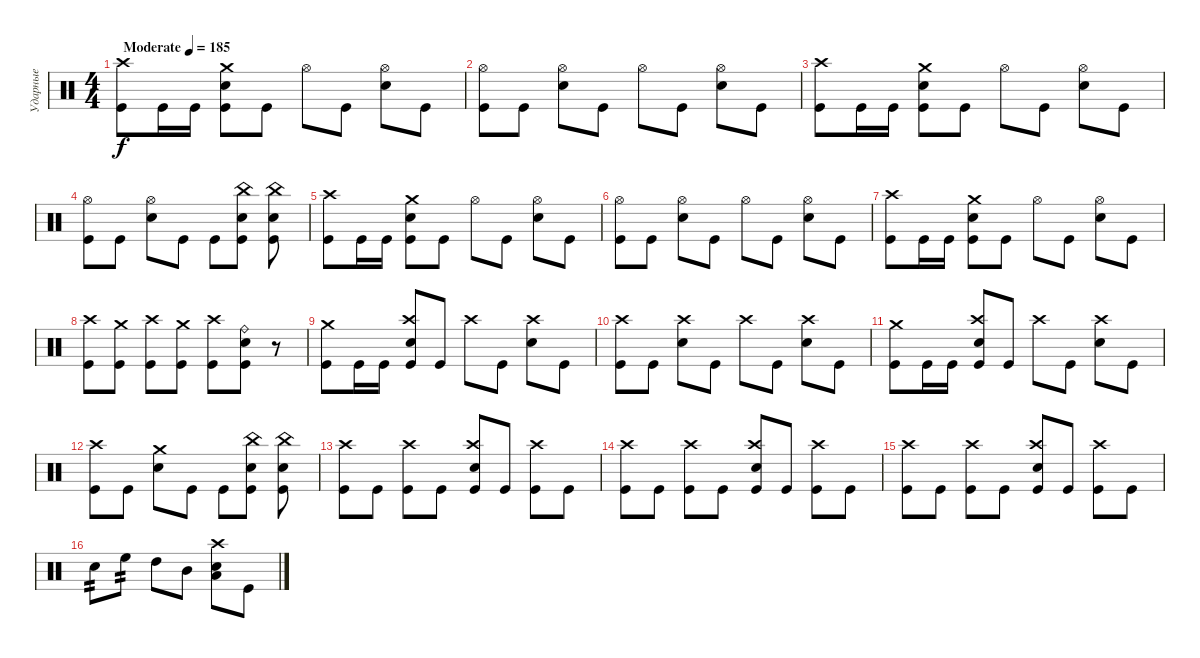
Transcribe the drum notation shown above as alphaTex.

\track ("Ударные" "Ударные") {instrument percussion}
\staff {score}
\articulation defaults
\ts (4 4)
\tempo (185 "Moderate")
\clef neutral
\ks c
("Kick (hit)" "Crash high (hit)").8{dy f} "Kick (hit)".16 "Kick (hit)".16 ("Kick (hit)" "Snare (hit) 2" "Crash medium (hit)").8 "Kick (hit)".8 "Hi-Hat (open)".8 "Kick (hit)".8 ("Snare (hit) 2" "Hi-Hat (open)").8 "Kick (hit)".8 |
("Kick (hit)" "Hi-Hat (open)").8 "Kick (hit)".8 ("Hi-Hat (open)" "Snare (hit) 2").8 "Kick (hit)".8 "Hi-Hat (open)".8 "Kick (hit)".8 ("Snare (hit) 2" "Hi-Hat (open)").8 "Kick (hit)".8 |
("Kick (hit)" "Crash high (hit)").8 "Kick (hit)".16 "Kick (hit)".16 ("Kick (hit)" "Snare (hit) 2" "Crash medium (hit)").8 "Kick (hit)".8 "Hi-Hat (open)".8 "Kick (hit)".8 ("Snare (hit) 2" "Hi-Hat (open)").8 "Kick (hit)".8 |
("Kick (hit)" "Hi-Hat (open)").8 "Kick (hit)".8 ("Hi-Hat (open)" "Snare (hit) 2").8 "Kick (hit)".8 "Kick (hit)".8 ("Snare (hit) 2" "China (hit)" "Kick (hit)").8 ("Snare (hit) 2" "China (hit)" "Kick (hit)").8 |
("Kick (hit)" "Crash high (hit)").8 "Kick (hit)".16 "Kick (hit)".16 ("Kick (hit)" "Snare (hit) 2" "Crash medium (hit)").8 "Kick (hit)".8 "Hi-Hat (open)".8 "Kick (hit)".8 ("Snare (hit) 2" "Hi-Hat (open)").8 "Kick (hit)".8 |
("Kick (hit)" "Hi-Hat (open)").8 "Kick (hit)".8 ("Hi-Hat (open)" "Snare (hit) 2").8 "Kick (hit)".8 "Hi-Hat (open)".8 "Kick (hit)".8 ("Snare (hit) 2" "Hi-Hat (open)").8 "Kick (hit)".8 |
("Kick (hit)" "Crash high (hit)").8 "Kick (hit)".16 "Kick (hit)".16 ("Kick (hit)" "Snare (hit) 2" "Crash medium (hit)").8 "Kick (hit)".8 "Hi-Hat (open)".8 "Kick (hit)".8 ("Snare (hit) 2" "Hi-Hat (open)").8 "Kick (hit)".8 |
("Kick (hit)" "Crash high (hit)").8 ("Kick (hit)" "Crash medium (hit)").8 ("Kick (hit)" "Crash high (hit)").8 ("Kick (hit)" "Crash medium (hit)").8 ("Kick (hit)" "Crash high (hit)").8 ("Kick (hit)" "Ride (bell)" "Snare (hit) 2").8 r.8 |
("Kick (hit)" "Crash medium (hit)").8 "Kick (hit)".16 "Kick (hit)".16 ("Kick (hit)" "Snare (hit) 2" "Crash high (hit)").8 "Kick (hit)".8 "Crash high (hit)".8 "Kick (hit)".8 ("Snare (hit) 2" "Crash high (hit)").8 "Kick (hit)".8 |
("Kick (hit)" "Crash high (hit)").8 "Kick (hit)".8 ("Crash high (hit)" "Snare (hit) 2").8 "Kick (hit)".8 "Crash high (hit)".8 "Kick (hit)".8 ("Snare (hit) 2" "Crash high (hit)").8 "Kick (hit)".8 |
("Kick (hit)" "Crash medium (hit)").8 "Kick (hit)".16 "Kick (hit)".16 ("Kick (hit)" "Snare (hit) 2" "Crash high (hit)").8 "Kick (hit)".8 "Crash high (hit)".8 "Kick (hit)".8 ("Snare (hit) 2" "Crash high (hit)").8 "Kick (hit)".8 |
("Kick (hit)" "Crash high (hit)").8 "Kick (hit)".8 ("Crash medium (hit)" "Snare (hit) 2").8 "Kick (hit)".8 "Kick (hit)".8 ("Snare (hit) 2" "China (hit)" "Kick (hit)").8 ("Snare (hit) 2" "China (hit)" "Kick (hit)").8 |
("Kick (hit)" "Crash high (hit)").8 "Kick (hit)".8 ("Kick (hit)" "Crash high (hit)").8 "Kick (hit)".8 ("Kick (hit)" "Snare (hit) 2" "Crash high (hit)").8 "Kick (hit)".8 ("Kick (hit)" "Crash high (hit)").8 "Kick (hit)".8 |
("Kick (hit)" "Crash high (hit)").8 "Kick (hit)".8 ("Kick (hit)" "Crash high (hit)").8 "Kick (hit)".8 ("Kick (hit)" "Snare (hit) 2" "Crash high (hit)").8 "Kick (hit)".8 ("Kick (hit)" "Crash high (hit)").8 "Kick (hit)".8 |
("Kick (hit)" "Crash high (hit)").8 "Kick (hit)".8 ("Kick (hit)" "Crash high (hit)").8 "Kick (hit)".8 ("Kick (hit)" "Snare (hit) 2" "Crash high (hit)").8 "Kick (hit)".8 ("Kick (hit)" "Crash high (hit)").8 "Kick (hit)".8 |
"Snare (hit) 2".8{tp 2} "High Floor Tom (hit)".8{tp 2} "High Tom (hit)".8 "Mid Tom (hit)".8 ("Low Tom (hit)" "Snare (hit) 2" "Crash high (hit)").8 "Kick (hit)".8
